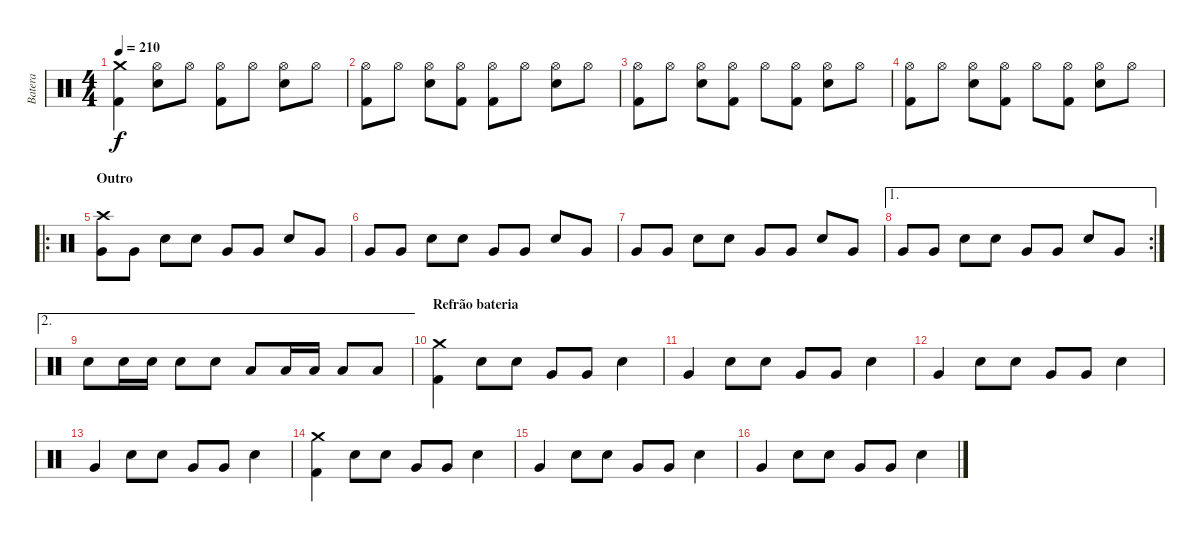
\track ("Batera" "Batera") {instrument percussion}
\staff {score}
\articulation defaults
\ts (4 4)
\tempo 210
\clef neutral
\ks c
("Crash medium (hit)" "Kick (hit) 2").4{dy f} ("Hi-Hat (open)" "Electric Snare (hit)").8 "Hi-Hat (open)".8 ("Hi-Hat (open)" "Kick (hit) 2").8 "Hi-Hat (open)".8 ("Hi-Hat (open)" "Electric Snare (hit)").8 "Hi-Hat (open)".8 |
("Hi-Hat (open)" "Kick (hit) 2").8 "Hi-Hat (open)".8 ("Hi-Hat (open)" "Electric Snare (hit)").8 ("Hi-Hat (open)" "Kick (hit) 2").8 ("Hi-Hat (open)" "Kick (hit) 2").8 "Hi-Hat (open)".8 ("Hi-Hat (open)" "Electric Snare (hit)").8 "Hi-Hat (open)".8 |
("Hi-Hat (open)" "Kick (hit) 2").8 "Hi-Hat (open)".8 ("Hi-Hat (open)" "Electric Snare (hit)").8 ("Hi-Hat (open)" "Kick (hit) 2").8 "Hi-Hat (open)".8 ("Hi-Hat (open)" "Kick (hit) 2").8 ("Hi-Hat (open)" "Electric Snare (hit)").8 "Hi-Hat (open)".8 |
("Hi-Hat (open)" "Kick (hit) 2").8 "Hi-Hat (open)".8 ("Hi-Hat (open)" "Electric Snare (hit)").8 ("Hi-Hat (open)" "Kick (hit) 2").8 "Hi-Hat (open)".8 ("Hi-Hat (open)" "Kick (hit) 2").8 ("Hi-Hat (open)" "Electric Snare (hit)").8 "Hi-Hat (open)".8 |
\ro
\section ("" "Outro")
("Crash high (hit)" "Very Low Tom (hit)").8 "Very Low Tom (hit)".8 "Electric Snare (hit)".8 "Electric Snare (hit)".8 "Very Low Tom (hit)".8 "Very Low Tom (hit)".8 "Electric Snare (hit)".8 "Very Low Tom (hit)".8 |
"Very Low Tom (hit)".8 "Very Low Tom (hit)".8 "Electric Snare (hit)".8 "Electric Snare (hit)".8 "Very Low Tom (hit)".8 "Very Low Tom (hit)".8 "Electric Snare (hit)".8 "Very Low Tom (hit)".8 |
"Very Low Tom (hit)".8 "Very Low Tom (hit)".8 "Electric Snare (hit)".8 "Electric Snare (hit)".8 "Very Low Tom (hit)".8 "Very Low Tom (hit)".8 "Electric Snare (hit)".8 "Very Low Tom (hit)".8 |
\ae 1
\rc 2 "Very Low Tom (hit)".8 "Very Low Tom (hit)".8 "Electric Snare (hit)".8 "Electric Snare (hit)".8 "Very Low Tom (hit)".8 "Very Low Tom (hit)".8 "Electric Snare (hit)".8 "Very Low Tom (hit)".8
|
\ae 2 "Electric Snare (hit)".8 "Electric Snare (hit)".16 "Electric Snare (hit)".16 "Electric Snare (hit)".8 "Electric Snare (hit)".8 "Low Tom (hit)".8 "Low Tom (hit)".16 "Low Tom (hit)".16 "Low Tom (hit)".8 "Low Tom (hit)".8
|
\section ("" "Refrão bateria")
("Crash medium (hit)" "Kick (hit) 2").4 "Electric Snare (hit)".8 "Electric Snare (hit)".8 "Very Low Tom (hit)".8 "Very Low Tom (hit)".8 "Electric Snare (hit)".4 |
"Very Low Tom (hit)".4 "Electric Snare (hit)".8 "Electric Snare (hit)".8 "Very Low Tom (hit)".8 "Very Low Tom (hit)".8 "Electric Snare (hit)".4 |
"Very Low Tom (hit)".4 "Electric Snare (hit)".8 "Electric Snare (hit)".8 "Very Low Tom (hit)".8 "Very Low Tom (hit)".8 "Electric Snare (hit)".4 |
"Very Low Tom (hit)".4 "Electric Snare (hit)".8 "Electric Snare (hit)".8 "Very Low Tom (hit)".8 "Very Low Tom (hit)".8 "Electric Snare (hit)".4 |
("Crash medium (hit)" "Kick (hit) 2").4 "Electric Snare (hit)".8 "Electric Snare (hit)".8 "Very Low Tom (hit)".8 "Very Low Tom (hit)".8 "Electric Snare (hit)".4 |
"Very Low Tom (hit)".4 "Electric Snare (hit)".8 "Electric Snare (hit)".8 "Very Low Tom (hit)".8 "Very Low Tom (hit)".8 "Electric Snare (hit)".4 |
"Very Low Tom (hit)".4 "Electric Snare (hit)".8 "Electric Snare (hit)".8 "Very Low Tom (hit)".8 "Very Low Tom (hit)".8 "Electric Snare (hit)".4
